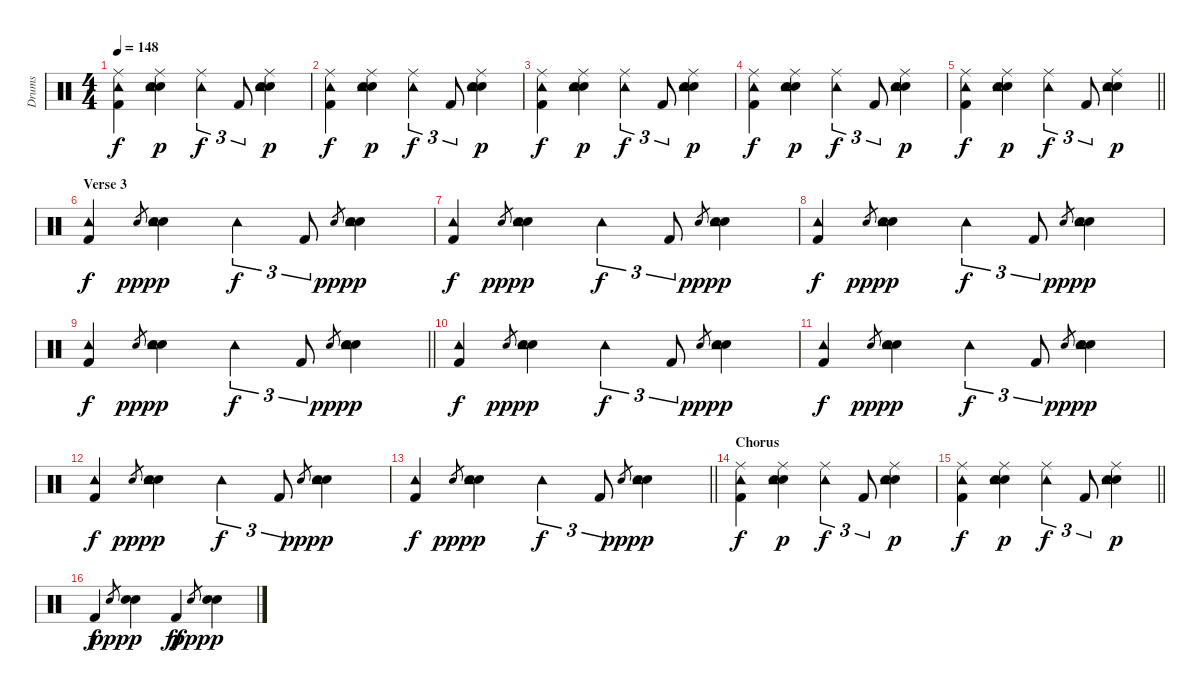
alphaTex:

\track ("Drums" "Drums") {instrument percussion}
\staff {score}
\articulation defaults
\ts (4 4)
\tempo 148
\clef neutral
\ks c
("Ride (middle)" "Tambourine (hit)" "Kick (hit) 2").4{dy f} ("Ride (middle)" "Hand Clap (hit)" "Tambourine (hit)" "Electric Snare (hit)").4{dy p} ("Ride (middle)" "Tambourine (hit)").4{tu (3 2) dy f} "Kick (hit) 2".8{tu (3 2)} ("Ride (middle)" "Hand Clap (hit)" "Tambourine (hit)" "Electric Snare (hit)").4{dy p} |
("Ride (middle)" "Tambourine (hit)" "Kick (hit) 2").4{dy f} ("Ride (middle)" "Hand Clap (hit)" "Tambourine (hit)" "Electric Snare (hit)").4{dy p} ("Ride (middle)" "Tambourine (hit)").4{tu (3 2) dy f} "Kick (hit) 2".8{tu (3 2)} ("Ride (middle)" "Hand Clap (hit)" "Tambourine (hit)" "Electric Snare (hit)").4{dy p} |
("Ride (middle)" "Tambourine (hit)" "Kick (hit) 2").4{dy f} ("Ride (middle)" "Hand Clap (hit)" "Tambourine (hit)" "Electric Snare (hit)").4{dy p} ("Ride (middle)" "Tambourine (hit)").4{tu (3 2) dy f} "Kick (hit) 2".8{tu (3 2)} ("Ride (middle)" "Hand Clap (hit)" "Tambourine (hit)" "Electric Snare (hit)").4{dy p} |
("Ride (middle)" "Tambourine (hit)" "Kick (hit) 2").4{dy f} ("Ride (middle)" "Hand Clap (hit)" "Tambourine (hit)" "Electric Snare (hit)").4{dy p} ("Ride (middle)" "Tambourine (hit)").4{tu (3 2) dy f} "Kick (hit) 2".8{tu (3 2)} ("Ride (middle)" "Hand Clap (hit)" "Tambourine (hit)" "Electric Snare (hit)").4{dy p} |
\barLineRight lightlight
("Ride (middle)" "Tambourine (hit)" "Kick (hit) 2").4{dy f} ("Ride (middle)" "Hand Clap (hit)" "Tambourine (hit)" "Electric Snare (hit)").4{dy p} ("Ride (middle)" "Tambourine (hit)").4{tu (3 2) dy f} "Kick (hit) 2".8{tu (3 2)} ("Ride (middle)" "Hand Clap (hit)" "Tambourine (hit)" "Electric Snare (hit)").4{dy p} |
\section ("" "Verse 3")
("Tambourine (hit)" "Kick (hit) 2").4{dy f} "Electric Snare (hit)".8{gr dy ppp} ("Hand Clap (hit)" "Tambourine (hit)" "Electric Snare (hit)").4{dy p} "Tambourine (hit)".4{tu (3 2) dy f} "Kick (hit) 2".8{tu (3 2)} "Electric Snare (hit)".8{gr dy ppp} ("Hand Clap (hit)" "Tambourine (hit)" "Electric Snare (hit)").4{dy p} |
("Tambourine (hit)" "Kick (hit) 2").4{dy f} "Electric Snare (hit)".8{gr dy ppp} ("Hand Clap (hit)" "Tambourine (hit)" "Electric Snare (hit)").4{dy p} "Tambourine (hit)".4{tu (3 2) dy f} "Kick (hit) 2".8{tu (3 2)} "Electric Snare (hit)".8{gr dy ppp} ("Hand Clap (hit)" "Tambourine (hit)" "Electric Snare (hit)").4{dy p} |
("Tambourine (hit)" "Kick (hit) 2").4{dy f} "Electric Snare (hit)".8{gr dy ppp} ("Hand Clap (hit)" "Tambourine (hit)" "Electric Snare (hit)").4{dy p} "Tambourine (hit)".4{tu (3 2) dy f} "Kick (hit) 2".8{tu (3 2)} "Electric Snare (hit)".8{gr dy ppp} ("Hand Clap (hit)" "Tambourine (hit)" "Electric Snare (hit)").4{dy p} |
\barLineRight lightlight
("Tambourine (hit)" "Kick (hit) 2").4{dy f} "Electric Snare (hit)".8{gr dy ppp} ("Hand Clap (hit)" "Tambourine (hit)" "Electric Snare (hit)").4{dy p} "Tambourine (hit)".4{tu (3 2) dy f} "Kick (hit) 2".8{tu (3 2)} "Electric Snare (hit)".8{gr dy ppp} ("Hand Clap (hit)" "Tambourine (hit)" "Electric Snare (hit)").4{dy p} |
("Tambourine (hit)" "Kick (hit) 2").4{dy f} "Electric Snare (hit)".8{gr dy ppp} ("Hand Clap (hit)" "Tambourine (hit)" "Electric Snare (hit)").4{dy p} "Tambourine (hit)".4{tu (3 2) dy f} "Kick (hit) 2".8{tu (3 2)} "Electric Snare (hit)".8{gr dy ppp} ("Hand Clap (hit)" "Tambourine (hit)" "Electric Snare (hit)").4{dy p} |
("Tambourine (hit)" "Kick (hit) 2").4{dy f} "Electric Snare (hit)".8{gr dy ppp} ("Hand Clap (hit)" "Tambourine (hit)" "Electric Snare (hit)").4{dy p} "Tambourine (hit)".4{tu (3 2) dy f} "Kick (hit) 2".8{tu (3 2)} "Electric Snare (hit)".8{gr dy ppp} ("Hand Clap (hit)" "Tambourine (hit)" "Electric Snare (hit)").4{dy p} |
("Tambourine (hit)" "Kick (hit) 2").4{dy f} "Electric Snare (hit)".8{gr dy ppp} ("Hand Clap (hit)" "Tambourine (hit)" "Electric Snare (hit)").4{dy p} "Tambourine (hit)".4{tu (3 2) dy f} "Kick (hit) 2".8{tu (3 2)} "Electric Snare (hit)".8{gr dy ppp} ("Hand Clap (hit)" "Tambourine (hit)" "Electric Snare (hit)").4{dy p} |
\barLineRight lightlight
("Tambourine (hit)" "Kick (hit) 2").4{dy f} "Electric Snare (hit)".8{gr dy ppp} ("Hand Clap (hit)" "Tambourine (hit)" "Electric Snare (hit)").4{dy p} "Tambourine (hit)".4{tu (3 2) dy f} "Kick (hit) 2".8{tu (3 2)} "Electric Snare (hit)".8{gr dy ppp} ("Hand Clap (hit)" "Tambourine (hit)" "Electric Snare (hit)").4{dy p} |
\section ("" "Chorus")
("Ride (middle)" "Tambourine (hit)" "Kick (hit) 2").4{dy f} ("Ride (middle)" "Hand Clap (hit)" "Tambourine (hit)" "Electric Snare (hit)").4{dy p} ("Ride (middle)" "Tambourine (hit)").4{tu (3 2) dy f} "Kick (hit) 2".8{tu (3 2)} ("Ride (middle)" "Hand Clap (hit)" "Tambourine (hit)" "Electric Snare (hit)").4{dy p} |
\barLineRight lightlight
("Ride (middle)" "Tambourine (hit)" "Kick (hit) 2").4{dy f} ("Ride (middle)" "Hand Clap (hit)" "Tambourine (hit)" "Electric Snare (hit)").4{dy p} ("Ride (middle)" "Tambourine (hit)").4{tu (3 2) dy f} "Kick (hit) 2".8{tu (3 2)} ("Ride (middle)" "Hand Clap (hit)" "Tambourine (hit)" "Electric Snare (hit)").4{dy p} |
"Kick (hit) 2".4{dy f} "Electric Snare (hit)".8{gr dy ppp} ("Hand Clap (hit)" "Electric Snare (hit)").4{dy p} "Kick (hit) 2".4{dy ff} "Electric Snare (hit)".8{gr dy ppp} ("Hand Clap (hit)" "Electric Snare (hit)").4{dy p}
